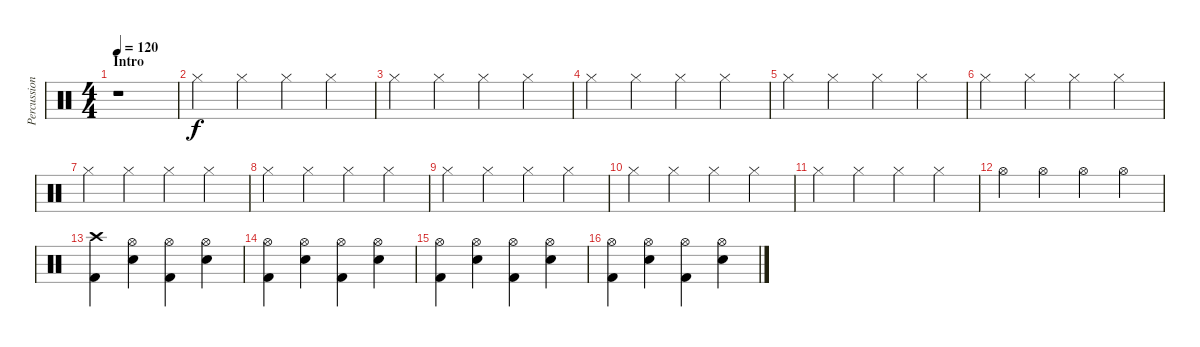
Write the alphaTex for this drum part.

\track ("Percussion" "Percussion") {instrument percussion}
\staff {score}
\articulation defaults
\ts (4 4)
\section ("" "Intro")
\tempo 120
\clef neutral
\ks c
r.1{dy f} |
"Hi-Hat (closed)".4 "Hi-Hat (closed)".4 "Hi-Hat (closed)".4 "Hi-Hat (closed)".4 |
"Hi-Hat (closed)".4 "Hi-Hat (closed)".4 "Hi-Hat (closed)".4 "Hi-Hat (closed)".4 |
"Hi-Hat (closed)".4 "Hi-Hat (closed)".4 "Hi-Hat (closed)".4 "Hi-Hat (closed)".4 |
"Hi-Hat (closed)".4 "Hi-Hat (closed)".4 "Hi-Hat (closed)".4 "Hi-Hat (closed)".4 |
"Hi-Hat (closed)".4 "Hi-Hat (closed)".4 "Hi-Hat (closed)".4 "Hi-Hat (closed)".4 |
"Hi-Hat (closed)".4 "Hi-Hat (closed)".4 "Hi-Hat (closed)".4 "Hi-Hat (closed)".4 |
"Hi-Hat (closed)".4 "Hi-Hat (closed)".4 "Hi-Hat (closed)".4 "Hi-Hat (closed)".4 |
"Hi-Hat (closed)".4 "Hi-Hat (closed)".4 "Hi-Hat (closed)".4 "Hi-Hat (closed)".4 |
"Hi-Hat (closed)".4 "Hi-Hat (closed)".4 "Hi-Hat (closed)".4 "Hi-Hat (closed)".4 |
"Hi-Hat (closed)".4 "Hi-Hat (closed)".4 "Hi-Hat (closed)".4 "Hi-Hat (closed)".4 |
"Hi-Hat (open)".4 "Hi-Hat (open)".4 "Hi-Hat (open)".4 "Hi-Hat (open)".4 |
("Crash high (hit)" "Kick (hit) 2").4 ("Hi-Hat (open)" "Snare (hit) 2").4 ("Hi-Hat (open)" "Kick (hit) 2").4 ("Hi-Hat (open)" "Snare (hit) 2").4 |
("Hi-Hat (open)" "Kick (hit) 2").4 ("Hi-Hat (open)" "Snare (hit) 2").4 ("Hi-Hat (open)" "Kick (hit) 2").4 ("Hi-Hat (open)" "Snare (hit) 2").4 |
("Hi-Hat (open)" "Kick (hit) 2").4 ("Hi-Hat (open)" "Snare (hit) 2").4 ("Hi-Hat (open)" "Kick (hit) 2").4 ("Hi-Hat (open)" "Snare (hit) 2").4 |
("Hi-Hat (open)" "Kick (hit) 2").4 ("Hi-Hat (open)" "Snare (hit) 2").4 ("Hi-Hat (open)" "Kick (hit) 2").4 ("Hi-Hat (open)" "Snare (hit) 2").4
